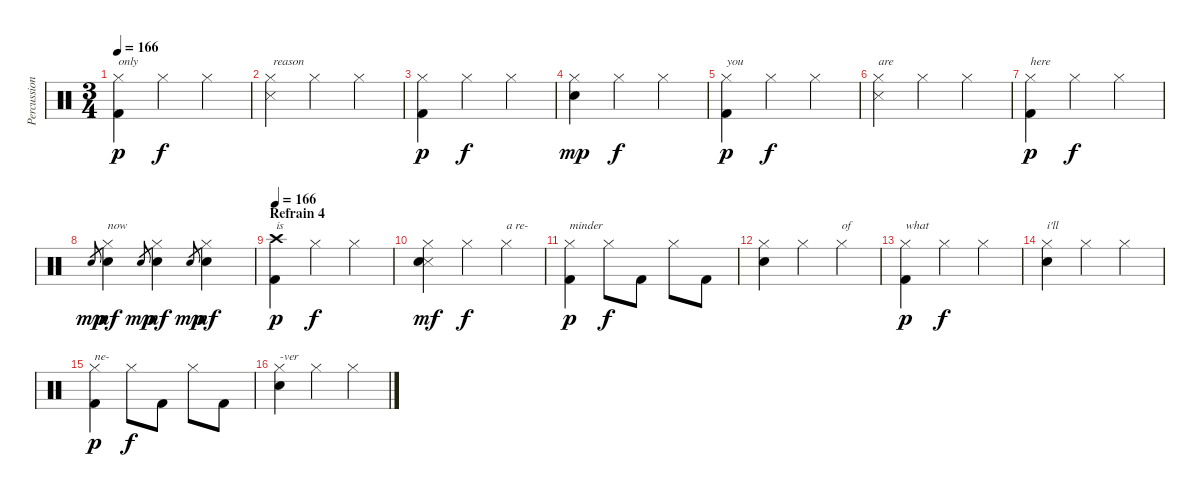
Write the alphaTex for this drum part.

\track ("Percussion" "Percussion") {instrument percussion}
\staff {score}
\articulation defaults
\ts (3 4)
\tempo 166
\clef neutral
\ks c
("Hi-Hat (closed)" "Kick (hit) 2").4{txt "only" dy p} "Hi-Hat (closed)".4{dy f} "Hi-Hat (closed)".4 |
("Hi-Hat (closed)" "Snare (side stick) 3").4{txt " reason"} "Hi-Hat (closed)".4 "Hi-Hat (closed)".4 |
("Hi-Hat (closed)" "Kick (hit) 2").4{dy p} "Hi-Hat (closed)".4{dy f} "Hi-Hat (closed)".4 |
("Hi-Hat (closed)" "Snare (hit) 2").4{dy mp} "Hi-Hat (closed)".4{dy f} "Hi-Hat (closed)".4 |
("Hi-Hat (closed)" "Kick (hit) 2").4{txt "you" dy p} "Hi-Hat (closed)".4{dy f} "Hi-Hat (closed)".4 |
("Hi-Hat (closed)" "Snare (side stick) 3").4{txt "are"} "Hi-Hat (closed)".4 "Hi-Hat (closed)".4 |
("Hi-Hat (closed)" "Kick (hit) 2").4{txt "here" dy p} "Hi-Hat (closed)".4{dy f} "Hi-Hat (closed)".4 |
"Electric Snare (hit)".8{gr dy mp} ("Hi-Hat (closed)" "Electric Snare (hit)").4{txt "now" dy mf} "Electric Snare (hit)".8{gr dy mp} ("Hi-Hat (closed)" "Electric Snare (hit)").4{dy mf} "Electric Snare (hit)".8{gr dy mp} ("Hi-Hat (closed)" "Electric Snare (hit)").4{dy mf} |
\section ("" "Refrain 4")
\tempo 166
("Crash high (hit)" "Kick (hit) 2").4{txt "is" dy p} "Hi-Hat (closed)".4{dy f} "Hi-Hat (closed)".4 |
("Hi-Hat (closed)" "Snare (side stick) 3" "Electric Snare (hit)").4{dy mf} "Hi-Hat (closed)".4{dy f} "Hi-Hat (closed)".4{txt "a re-"} |
("Hi-Hat (closed)" "Kick (hit) 2").4{txt "minder" dy p} "Hi-Hat (closed)".8{dy f} "Kick (hit) 2".8 "Hi-Hat (closed)".8 "Kick (hit) 2".8 |
("Hi-Hat (closed)" "Electric Snare (hit)").4 "Hi-Hat (closed)".4 "Hi-Hat (closed)".4{txt "of"} |
("Hi-Hat (closed)" "Kick (hit) 2").4{txt "what" dy p} "Hi-Hat (closed)".4{dy f} "Hi-Hat (closed)".4 |
("Hi-Hat (closed)" "Electric Snare (hit)").4{txt "i'll"} "Hi-Hat (closed)".4 "Hi-Hat (closed)".4 |
("Hi-Hat (closed)" "Kick (hit) 2").4{txt "ne-" dy p} "Hi-Hat (closed)".8{dy f} "Kick (hit) 2".8 "Hi-Hat (closed)".8 "Kick (hit) 2".8 |
("Hi-Hat (closed)" "Electric Snare (hit)").4{txt "-ver"} "Hi-Hat (closed)".4 "Hi-Hat (closed)".4
